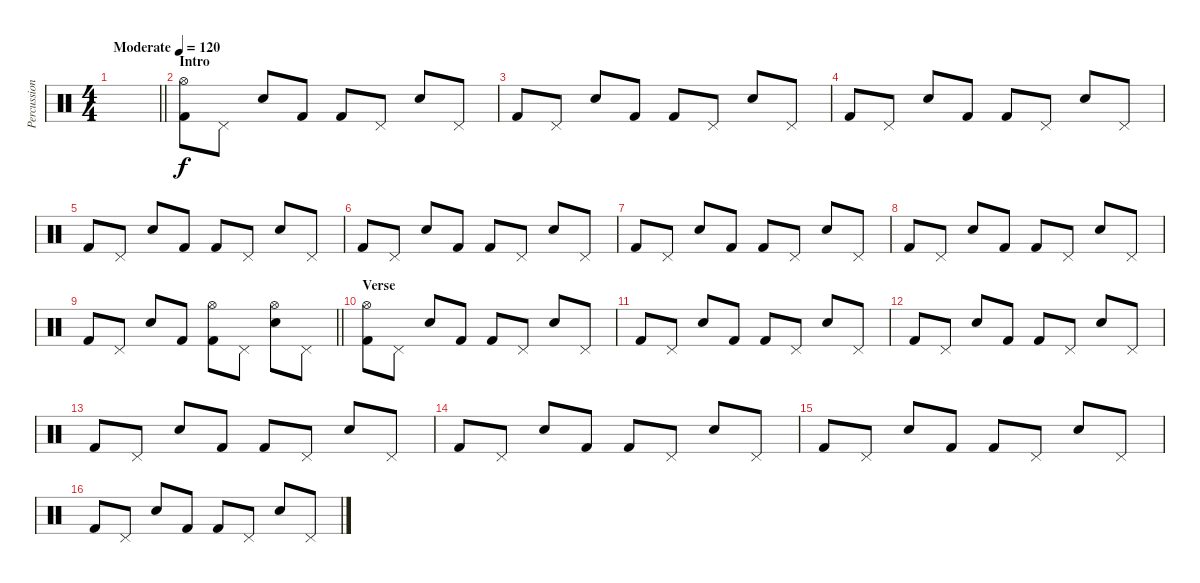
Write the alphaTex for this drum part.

\track ("Percussions" "Percussion") {instrument percussion}
\staff {score}
\articulation defaults
\ts (4 4)
\tempo (120 "Moderate")
\clef neutral
\barLineRight lightlight
\ks c
|
\section ("" "Intro")
("Hi-Hat (open)" "Kick (hit) 2").8 "Pedal Hi-Hat (hit)".8 "Snare (hit) 2".8 "Kick (hit) 2".8 "Kick (hit) 2".8 "Pedal Hi-Hat (hit)".8 "Snare (hit) 2".8 "Pedal Hi-Hat (hit)".8 |
"Kick (hit) 2".8 "Pedal Hi-Hat (hit)".8 "Snare (hit) 2".8 "Kick (hit) 2".8 "Kick (hit) 2".8 "Pedal Hi-Hat (hit)".8 "Snare (hit) 2".8 "Pedal Hi-Hat (hit)".8 |
"Kick (hit) 2".8 "Pedal Hi-Hat (hit)".8 "Snare (hit) 2".8 "Kick (hit) 2".8 "Kick (hit) 2".8 "Pedal Hi-Hat (hit)".8 "Snare (hit) 2".8 "Pedal Hi-Hat (hit)".8 |
"Kick (hit) 2".8 "Pedal Hi-Hat (hit)".8 "Snare (hit) 2".8 "Kick (hit) 2".8 "Kick (hit) 2".8 "Pedal Hi-Hat (hit)".8 "Snare (hit) 2".8 "Pedal Hi-Hat (hit)".8 |
"Kick (hit) 2".8 "Pedal Hi-Hat (hit)".8 "Snare (hit) 2".8 "Kick (hit) 2".8 "Kick (hit) 2".8 "Pedal Hi-Hat (hit)".8 "Snare (hit) 2".8 "Pedal Hi-Hat (hit)".8 |
"Kick (hit) 2".8 "Pedal Hi-Hat (hit)".8 "Snare (hit) 2".8 "Kick (hit) 2".8 "Kick (hit) 2".8 "Pedal Hi-Hat (hit)".8 "Snare (hit) 2".8 "Pedal Hi-Hat (hit)".8 |
"Kick (hit) 2".8 "Pedal Hi-Hat (hit)".8 "Snare (hit) 2".8 "Kick (hit) 2".8 "Kick (hit) 2".8 "Pedal Hi-Hat (hit)".8 "Snare (hit) 2".8 "Pedal Hi-Hat (hit)".8 |
\barLineRight lightlight "Kick (hit) 2".8 "Pedal Hi-Hat (hit)".8 "Snare (hit) 2".8 "Kick (hit) 2".8
("Hi-Hat (open)" "Kick (hit) 2").8 "Pedal Hi-Hat (hit)".8 ("Hi-Hat (open)" "Snare (hit) 2").8 "Pedal Hi-Hat (hit)".8 |
\section ("" "Verse")
("Hi-Hat (open)" "Kick (hit) 2").8 "Pedal Hi-Hat (hit)".8 "Snare (hit) 2".8 "Kick (hit) 2".8 "Kick (hit) 2".8 "Pedal Hi-Hat (hit)".8 "Snare (hit) 2".8 "Pedal Hi-Hat (hit)".8 |
"Kick (hit) 2".8 "Pedal Hi-Hat (hit)".8 "Snare (hit) 2".8 "Kick (hit) 2".8 "Kick (hit) 2".8 "Pedal Hi-Hat (hit)".8 "Snare (hit) 2".8 "Pedal Hi-Hat (hit)".8 |
"Kick (hit) 2".8 "Pedal Hi-Hat (hit)".8 "Snare (hit) 2".8 "Kick (hit) 2".8 "Kick (hit) 2".8 "Pedal Hi-Hat (hit)".8 "Snare (hit) 2".8 "Pedal Hi-Hat (hit)".8 |
"Kick (hit) 2".8 "Pedal Hi-Hat (hit)".8 "Snare (hit) 2".8 "Kick (hit) 2".8 "Kick (hit) 2".8 "Pedal Hi-Hat (hit)".8 "Snare (hit) 2".8 "Pedal Hi-Hat (hit)".8 |
"Kick (hit) 2".8 "Pedal Hi-Hat (hit)".8 "Snare (hit) 2".8 "Kick (hit) 2".8 "Kick (hit) 2".8 "Pedal Hi-Hat (hit)".8 "Snare (hit) 2".8 "Pedal Hi-Hat (hit)".8 |
"Kick (hit) 2".8 "Pedal Hi-Hat (hit)".8 "Snare (hit) 2".8 "Kick (hit) 2".8 "Kick (hit) 2".8 "Pedal Hi-Hat (hit)".8 "Snare (hit) 2".8 "Pedal Hi-Hat (hit)".8 |
"Kick (hit) 2".8 "Pedal Hi-Hat (hit)".8 "Snare (hit) 2".8 "Kick (hit) 2".8 "Kick (hit) 2".8 "Pedal Hi-Hat (hit)".8 "Snare (hit) 2".8 "Pedal Hi-Hat (hit)".8
